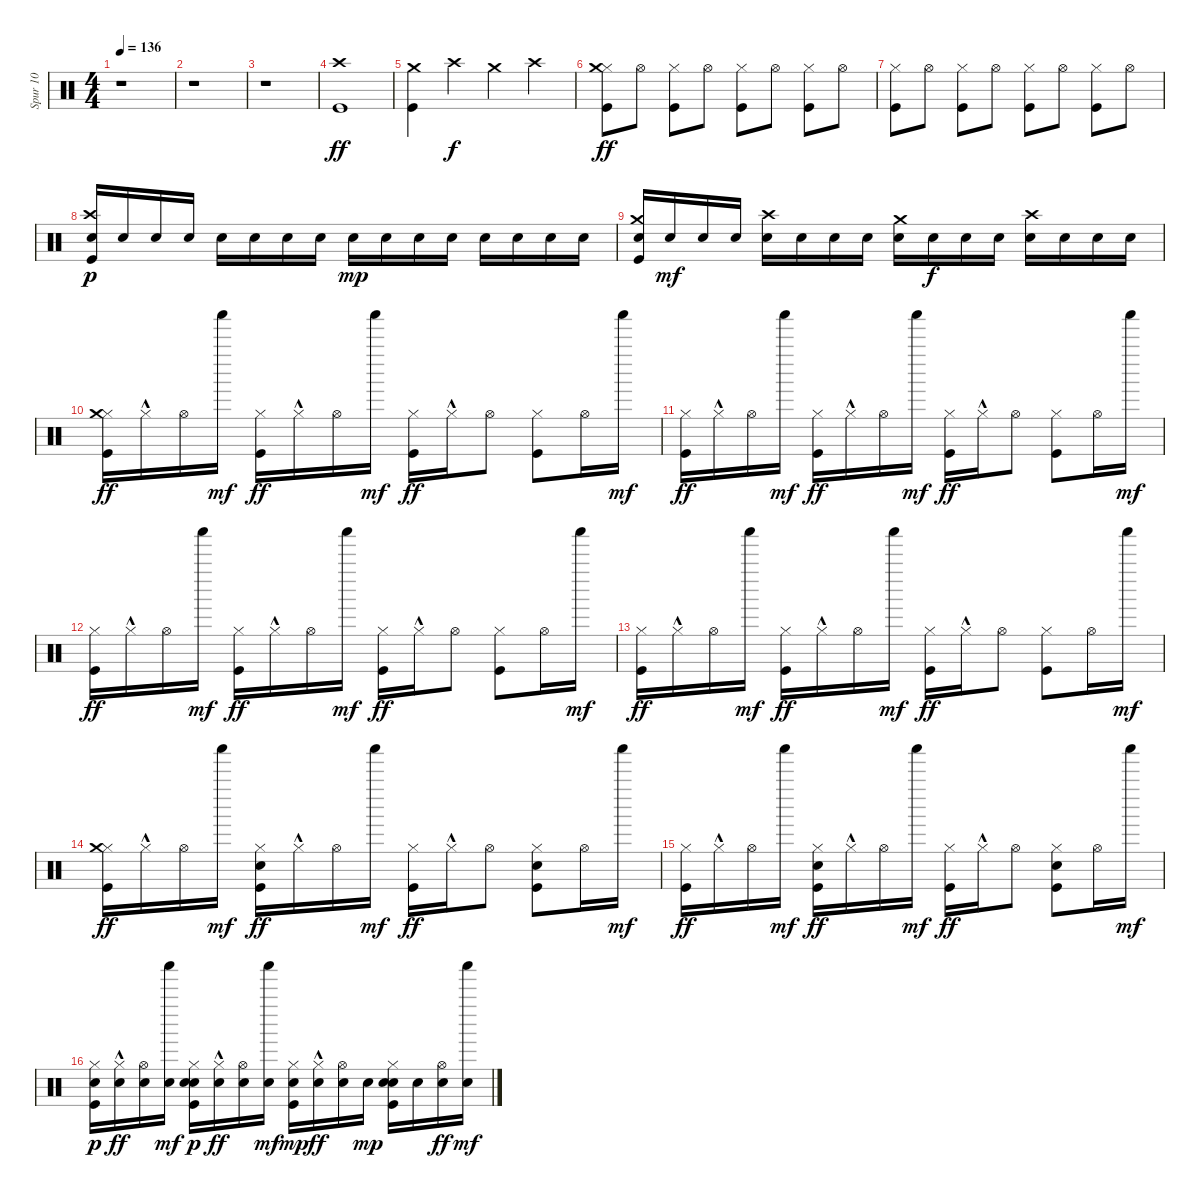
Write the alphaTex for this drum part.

\track ("Spur 10" "Spur 10") {instrument percussion}
\staff {score}
\articulation defaults
\ts (4 4)
\tempo 136
\clef neutral
\ks c
r.1{dy ff} |
r.1 |
r.1 |
("Kick (hit)" "Crash high (hit)").1 |
("Kick (hit)" "Crash medium (hit)").4 "Crash high (hit)".4{dy f} "Crash medium (hit)".4 "Crash high (hit)".4 |
("Kick (hit)" "Hi-Hat (closed)" "Crash medium (hit)").8{dy ff} "Hi-Hat (open)".8 ("Kick (hit)" "Hi-Hat (closed)").8 "Hi-Hat (open)".8 ("Kick (hit)" "Hi-Hat (closed)").8 "Hi-Hat (open)".8 ("Kick (hit)" "Hi-Hat (closed)").8 "Hi-Hat (open)".8 |
("Kick (hit)" "Hi-Hat (closed)").8 "Hi-Hat (open)".8 ("Kick (hit)" "Hi-Hat (closed)").8 "Hi-Hat (open)".8 ("Kick (hit)" "Hi-Hat (closed)").8 "Hi-Hat (open)".8 ("Kick (hit)" "Hi-Hat (closed)").8 "Hi-Hat (open)".8 |
("Kick (hit)" "Snare (hit) 2" "Crash high (hit)").16{dy p} "Snare (hit) 2".16 "Snare (hit) 2".16 "Snare (hit) 2".16 "Snare (hit) 2".16 "Snare (hit) 2".16 "Snare (hit) 2".16 "Snare (hit) 2".16 "Snare (hit) 2".16{dy mp} "Snare (hit) 2".16 "Snare (hit) 2".16 "Snare (hit) 2".16 "Snare (hit) 2".16 "Snare (hit) 2".16 "Snare (hit) 2".16 "Snare (hit) 2".16 |
("Kick (hit)" "Snare (hit) 2" "Crash medium (hit)").16 "Snare (hit) 2".16{dy mf} "Snare (hit) 2".16 "Snare (hit) 2".16 ("Snare (hit) 2" "Crash high (hit)").16 "Snare (hit) 2".16 "Snare (hit) 2".16 "Snare (hit) 2".16 ("Snare (hit) 2" "Crash medium (hit)").16 "Snare (hit) 2".16{dy f} "Snare (hit) 2".16 "Snare (hit) 2".16 ("Snare (hit) 2" "Crash high (hit)").16 "Snare (hit) 2".16 "Snare (hit) 2".16 "Snare (hit) 2".16 |
("Kick (hit)" "Hi-Hat (closed)" "Crash medium (hit)").16{dy ff} "Hi-Hat (closed)"{hac}.16 "Hi-Hat (open)".16 "Shaker (hit)".16{dy mf} ("Kick (hit)" "Hi-Hat (closed)").16{dy ff} "Hi-Hat (closed)"{hac}.16 "Hi-Hat (open)".16 "Shaker (hit)".16{dy mf} ("Kick (hit)" "Hi-Hat (closed)").16{dy ff} "Hi-Hat (closed)"{hac}.16 "Hi-Hat (open)".8 ("Kick (hit)" "Hi-Hat (closed)").8 "Hi-Hat (open)".16 "Shaker (hit)".16{dy mf} |
("Kick (hit)" "Hi-Hat (closed)").16{dy ff} "Hi-Hat (closed)"{hac}.16 "Hi-Hat (open)".16 "Shaker (hit)".16{dy mf} ("Kick (hit)" "Hi-Hat (closed)").16{dy ff} "Hi-Hat (closed)"{hac}.16 "Hi-Hat (open)".16 "Shaker (hit)".16{dy mf} ("Kick (hit)" "Hi-Hat (closed)").16{dy ff} "Hi-Hat (closed)"{hac}.16 "Hi-Hat (open)".8 ("Kick (hit)" "Hi-Hat (closed)").8 "Hi-Hat (open)".16 "Shaker (hit)".16{dy mf} |
("Kick (hit)" "Hi-Hat (closed)").16{dy ff} "Hi-Hat (closed)"{hac}.16 "Hi-Hat (open)".16 "Shaker (hit)".16{dy mf} ("Kick (hit)" "Hi-Hat (closed)").16{dy ff} "Hi-Hat (closed)"{hac}.16 "Hi-Hat (open)".16 "Shaker (hit)".16{dy mf} ("Kick (hit)" "Hi-Hat (closed)").16{dy ff} "Hi-Hat (closed)"{hac}.16 "Hi-Hat (open)".8 ("Kick (hit)" "Hi-Hat (closed)").8 "Hi-Hat (open)".16 "Shaker (hit)".16{dy mf} |
("Kick (hit)" "Hi-Hat (closed)").16{dy ff} "Hi-Hat (closed)"{hac}.16 "Hi-Hat (open)".16 "Shaker (hit)".16{dy mf} ("Kick (hit)" "Hi-Hat (closed)").16{dy ff} "Hi-Hat (closed)"{hac}.16 "Hi-Hat (open)".16 "Shaker (hit)".16{dy mf} ("Kick (hit)" "Hi-Hat (closed)").16{dy ff} "Hi-Hat (closed)"{hac}.16 "Hi-Hat (open)".8 ("Kick (hit)" "Hi-Hat (closed)").8 "Hi-Hat (open)".16 "Shaker (hit)".16{dy mf} |
("Kick (hit)" "Hi-Hat (closed)" "Crash medium (hit)").16{dy ff} "Hi-Hat (closed)"{hac}.16 "Hi-Hat (open)".16 "Shaker (hit)".16{dy mf} ("Kick (hit)" "Electric Snare (hit)" "Hi-Hat (closed)").16{dy ff} "Hi-Hat (closed)"{hac}.16 "Hi-Hat (open)".16 "Shaker (hit)".16{dy mf} ("Kick (hit)" "Hi-Hat (closed)").16{dy ff} "Hi-Hat (closed)"{hac}.16 "Hi-Hat (open)".8 ("Kick (hit)" "Electric Snare (hit)" "Hi-Hat (closed)").8 "Hi-Hat (open)".16 "Shaker (hit)".16{dy mf} |
("Kick (hit)" "Hi-Hat (closed)").16{dy ff} "Hi-Hat (closed)"{hac}.16 "Hi-Hat (open)".16 "Shaker (hit)".16{dy mf} ("Kick (hit)" "Electric Snare (hit)" "Hi-Hat (closed)").16{dy ff} "Hi-Hat (closed)"{hac}.16 "Hi-Hat (open)".16 "Shaker (hit)".16{dy mf} ("Kick (hit)" "Hi-Hat (closed)").16{dy ff} "Hi-Hat (closed)"{hac}.16 "Hi-Hat (open)".8 ("Kick (hit)" "Electric Snare (hit)" "Hi-Hat (closed)").8 "Hi-Hat (open)".16 "Shaker (hit)".16{dy mf} |
("Kick (hit)" "Snare (hit) 2" "Hi-Hat (closed)").16{dy p} ("Snare (hit) 2" "Hi-Hat (closed)"{hac}).16{dy ff} ("Snare (hit) 2" "Hi-Hat (open)").16 ("Snare (hit) 2" "Shaker (hit)").16{dy mf} ("Kick (hit)" "Electric Snare (hit)" "Snare (hit) 2" "Hi-Hat (closed)").16{dy p} ("Snare (hit) 2" "Hi-Hat (closed)"{hac}).16{dy ff} ("Snare (hit) 2" "Hi-Hat (open)").16 ("Snare (hit) 2" "Shaker (hit)").16{dy mf} ("Kick (hit)" "Snare (hit) 2" "Hi-Hat (closed)").16{dy mp} ("Snare (hit) 2" "Hi-Hat (closed)"{hac}).16{dy ff} ("Snare (hit) 2" "Hi-Hat (open)").16 "Snare (hit) 2".16{dy mp} ("Kick (hit)" "Electric Snare (hit)" "Snare (hit) 2" "Hi-Hat (closed)").16 "Snare (hit) 2".16 ("Snare (hit) 2" "Hi-Hat (open)").16{dy ff} ("Snare (hit) 2" "Shaker (hit)").16{dy mf}
